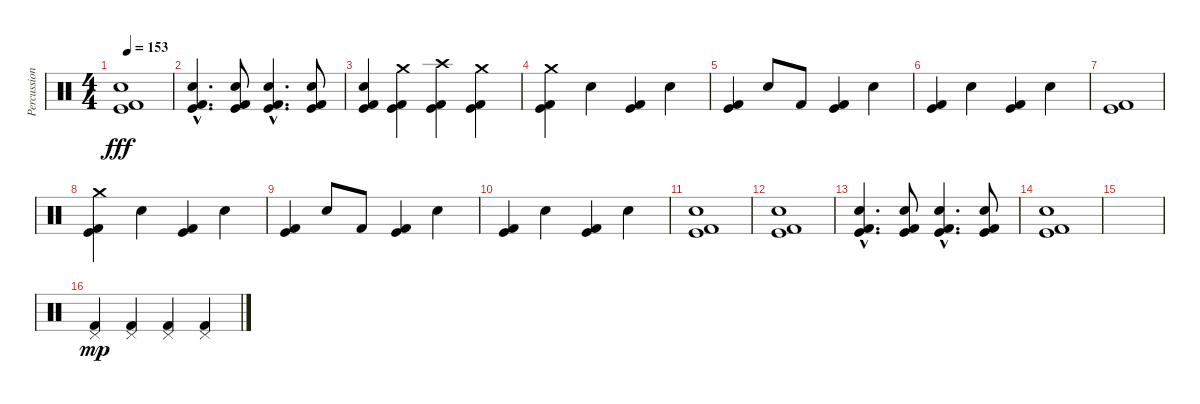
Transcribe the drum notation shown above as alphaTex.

\track ("Percussion" "Percussion") {instrument percussion}
\staff {score}
\articulation defaults
\ts (4 4)
\tempo 153
\clef neutral
\ks c
("Snare (hit) 2" "Kick (hit)" "Kick (hit) 2").1{dy fff} |
("Snare (hit) 2"{hac} "Kick (hit)"{hac} "Kick (hit) 2"{hac}).4{d} ("Snare (hit) 2" "Kick (hit)" "Kick (hit) 2").8 ("Snare (hit) 2"{hac} "Kick (hit)"{hac} "Kick (hit) 2"{hac}).4{d} ("Snare (hit) 2" "Kick (hit)" "Kick (hit) 2").8 |
("Snare (hit) 2" "Kick (hit)" "Kick (hit) 2").4 ("Crash medium (hit)" "Kick (hit)" "Kick (hit) 2").4 ("Crash high (hit)" "Kick (hit)" "Kick (hit) 2").4 ("Crash medium (hit)" "Kick (hit)" "Kick (hit) 2").4 |
("Crash medium (hit)" "Kick (hit)" "Kick (hit) 2").4 "Snare (hit) 2".4 ("Kick (hit)" "Kick (hit) 2").4 "Snare (hit) 2".4 |
("Kick (hit)" "Kick (hit) 2").4 "Snare (hit) 2".8 "Kick (hit) 2".8 ("Kick (hit)" "Kick (hit) 2").4 "Snare (hit) 2".4 |
("Kick (hit)" "Kick (hit) 2").4 "Snare (hit) 2".4 ("Kick (hit)" "Kick (hit) 2").4 "Snare (hit) 2".4 |
("Kick (hit)" "Kick (hit) 2").1 |
("Crash medium (hit)" "Kick (hit)" "Kick (hit) 2").4 "Snare (hit) 2".4 ("Kick (hit)" "Kick (hit) 2").4 "Snare (hit) 2".4 |
("Kick (hit)" "Kick (hit) 2").4 "Snare (hit) 2".8 "Kick (hit) 2".8 ("Kick (hit)" "Kick (hit) 2").4 "Snare (hit) 2".4 |
("Kick (hit)" "Kick (hit) 2").4 "Snare (hit) 2".4 ("Kick (hit)" "Kick (hit) 2").4 "Snare (hit) 2".4 |
("Snare (hit) 2" "Kick (hit)" "Kick (hit) 2").1 |
("Snare (hit) 2" "Kick (hit)" "Kick (hit) 2").1 |
("Snare (hit) 2"{hac} "Kick (hit)"{hac} "Kick (hit) 2"{hac}).4{d} ("Snare (hit) 2" "Kick (hit)" "Kick (hit) 2").8 ("Snare (hit) 2"{hac} "Kick (hit)"{hac} "Kick (hit) 2"{hac}).4{d} ("Snare (hit) 2" "Kick (hit)" "Kick (hit) 2").8 |
("Snare (hit) 2" "Kick (hit)" "Kick (hit) 2").1 |
|
("Pedal Hi-Hat (hit)" "Kick (hit) 2").4{dy mp} ("Pedal Hi-Hat (hit)" "Kick (hit) 2").4 ("Pedal Hi-Hat (hit)" "Kick (hit) 2").4 ("Pedal Hi-Hat (hit)" "Kick (hit) 2").4
